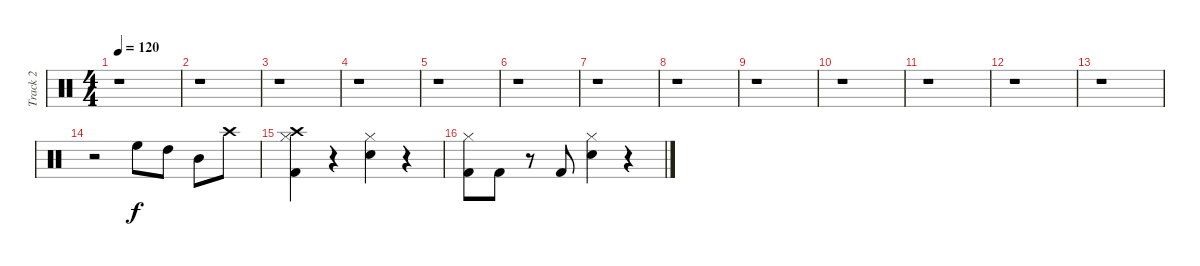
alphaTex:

\track ("Track 2" "Track 2") {instrument percussion}
\staff {score}
\articulation defaults
\ts (4 4)
\tempo 120
\clef neutral
\ks c
r.1{dy f} |
r.1 |
r.1 |
r.1 |
r.1 |
r.1 |
r.1 |
r.1 |
r.1 |
r.1 |
r.1 |
r.1 |
r.1 |
r.2 "High Floor Tom (hit)".8 "High Tom (hit)".8 "Mid Tom (hit)".8 "Crash high (hit)".8 |
("Crash high (hit)" "Hi-Hat (closed)" "Kick (hit) 2").4 r.4 ("Hi-Hat (closed)" "Snare (hit) 2").4 r.4 |
("Hi-Hat (closed)" "Kick (hit) 2").8 "Kick (hit) 2".8 r.8 "Kick (hit) 2".8 ("Hi-Hat (closed)" "Snare (hit) 2").4 r.4
